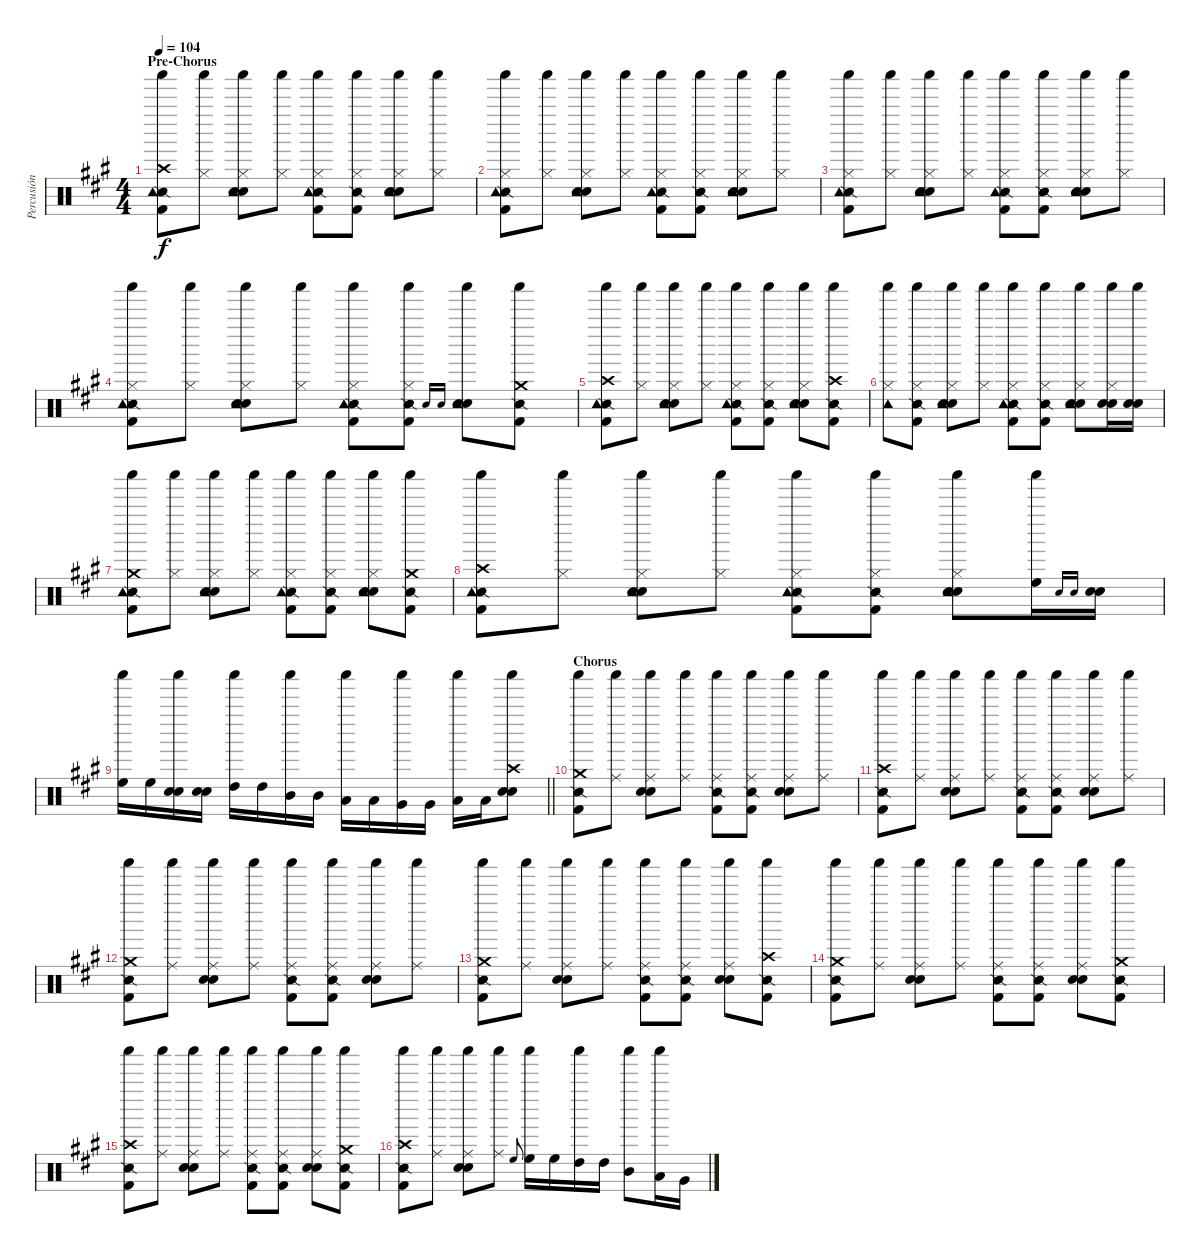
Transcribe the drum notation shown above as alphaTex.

\track ("Percusión" "Percusión") {instrument percussion}
\staff {score}
\articulation defaults
\ts (4 4)
\section ("" "Pre-Chorus")
\tempo 104
\clef neutral
\ks a
("Crash high (hit)" "Kick (hit) 2" "Snare (side stick) 2" "Tambourine (hit)" "Shaker (hit)").8{dy f} ("Hi-Hat (closed)" "Shaker (hit)").8 ("Hi-Hat (closed)" "Snare (hit) 2" "Electric Snare (hit)" "Tambourine (hit)" "Shaker (hit)").8 ("Hi-Hat (closed)" "Shaker (hit)").8 ("Hi-Hat (closed)" "Kick (hit) 2" "Snare (side stick) 2" "Tambourine (hit)" "Shaker (hit)").8 ("Hi-Hat (closed)" "Kick (hit) 2" "Snare (side stick) 2" "Shaker (hit)").8 ("Hi-Hat (closed)" "Snare (hit) 2" "Electric Snare (hit)" "Tambourine (hit)" "Shaker (hit)").8 ("Hi-Hat (closed)" "Shaker (hit)").8 |
("Hi-Hat (closed)" "Kick (hit) 2" "Snare (side stick) 2" "Tambourine (hit)" "Shaker (hit)").8 ("Hi-Hat (closed)" "Shaker (hit)").8 ("Hi-Hat (closed)" "Snare (hit) 2" "Electric Snare (hit)" "Tambourine (hit)" "Shaker (hit)").8 ("Hi-Hat (closed)" "Shaker (hit)").8 ("Hi-Hat (closed)" "Kick (hit) 2" "Snare (side stick) 2" "Tambourine (hit)" "Shaker (hit)").8 ("Hi-Hat (closed)" "Kick (hit) 2" "Snare (side stick) 2" "Shaker (hit)").8 ("Hi-Hat (closed)" "Snare (hit) 2" "Electric Snare (hit)" "Tambourine (hit)" "Shaker (hit)").8 ("Hi-Hat (closed)" "Shaker (hit)").8 |
("Hi-Hat (closed)" "Kick (hit) 2" "Snare (side stick) 2" "Tambourine (hit)" "Shaker (hit)").8 ("Hi-Hat (closed)" "Shaker (hit)").8 ("Hi-Hat (closed)" "Snare (hit) 2" "Electric Snare (hit)" "Tambourine (hit)" "Shaker (hit)").8 ("Hi-Hat (closed)" "Shaker (hit)").8 ("Hi-Hat (closed)" "Kick (hit) 2" "Snare (side stick) 2" "Tambourine (hit)" "Shaker (hit)").8 ("Hi-Hat (closed)" "Kick (hit) 2" "Snare (side stick) 2" "Shaker (hit)").8 ("Hi-Hat (closed)" "Snare (hit) 2" "Electric Snare (hit)" "Tambourine (hit)" "Shaker (hit)").8 ("Hi-Hat (closed)" "Shaker (hit)").8 |
("Hi-Hat (closed)" "Kick (hit) 2" "Snare (side stick) 2" "Tambourine (hit)" "Shaker (hit)").8 ("Hi-Hat (closed)" "Shaker (hit)").8 ("Hi-Hat (closed)" "Snare (hit) 2" "Electric Snare (hit)" "Tambourine (hit)" "Shaker (hit)").8 ("Hi-Hat (closed)" "Shaker (hit)").8 ("Hi-Hat (closed)" "Kick (hit) 2" "Snare (side stick) 2" "Tambourine (hit)" "Shaker (hit)").8 ("Hi-Hat (closed)" "Kick (hit) 2" "Snare (side stick) 2" "Shaker (hit)").8 "Snare (hit) 2".16{gr onbeat} "Electric Snare (hit)".16{gr onbeat} ("Snare (hit) 2" "Electric Snare (hit)" "Tambourine (hit)" "Shaker (hit)").8 ("Crash medium (hit)" "Kick (hit) 2" "Snare (side stick) 2" "Shaker (hit)").8 |
("Crash high (hit)" "Kick (hit) 2" "Snare (side stick) 2" "Tambourine (hit)" "Shaker (hit)").8 ("Hi-Hat (closed)" "Shaker (hit)").8 ("Hi-Hat (closed)" "Snare (hit) 2" "Electric Snare (hit)" "Tambourine (hit)" "Shaker (hit)").8 ("Hi-Hat (closed)" "Shaker (hit)").8 ("Hi-Hat (closed)" "Kick (hit) 2" "Snare (side stick) 2" "Tambourine (hit)" "Shaker (hit)").8 ("Hi-Hat (closed)" "Kick (hit) 2" "Snare (side stick) 2" "Shaker (hit)").8 ("Hi-Hat (closed)" "Snare (hit) 2" "Electric Snare (hit)" "Tambourine (hit)" "Shaker (hit)").8 ("Crash high (hit)" "Kick (hit) 2" "Snare (side stick) 2" "Shaker (hit)").8 |
("Hi-Hat (closed)" "Tambourine (hit)" "Shaker (hit)").8 ("Hi-Hat (closed)" "Kick (hit) 2" "Snare (side stick) 2" "Shaker (hit)").8 ("Hi-Hat (closed)" "Snare (hit) 2" "Electric Snare (hit)" "Tambourine (hit)" "Shaker (hit)").8 ("Hi-Hat (closed)" "Shaker (hit)").8 ("Hi-Hat (closed)" "Kick (hit) 2" "Snare (side stick) 2" "Tambourine (hit)" "Shaker (hit)").8 ("Hi-Hat (closed)" "Kick (hit) 2" "Snare (side stick) 2" "Shaker (hit)").8 ("Hi-Hat (closed)" "Snare (hit) 2" "Electric Snare (hit)" "Tambourine (hit)" "Shaker (hit)").8 ("Hi-Hat (closed)" "Snare (hit) 2" "Electric Snare (hit)" "Shaker (hit)").16 ("Snare (hit) 2" "Electric Snare (hit)" "Shaker (hit)").16 |
("Crash medium (hit)" "Kick (hit) 2" "Snare (side stick) 2" "Tambourine (hit)" "Shaker (hit)").8 ("Hi-Hat (closed)" "Shaker (hit)").8 ("Hi-Hat (closed)" "Snare (hit) 2" "Electric Snare (hit)" "Tambourine (hit)" "Shaker (hit)").8 ("Hi-Hat (closed)" "Shaker (hit)").8 ("Hi-Hat (closed)" "Kick (hit) 2" "Snare (side stick) 2" "Tambourine (hit)" "Shaker (hit)").8 ("Hi-Hat (closed)" "Kick (hit) 2" "Snare (side stick) 2" "Shaker (hit)").8 ("Hi-Hat (closed)" "Snare (hit) 2" "Electric Snare (hit)" "Tambourine (hit)" "Shaker (hit)").8 ("Crash medium (hit)" "Kick (hit) 2" "Snare (side stick) 2" "Shaker (hit)").8 |
("Crash high (hit)" "Kick (hit) 2" "Snare (side stick) 2" "Tambourine (hit)" "Shaker (hit)").8 ("Hi-Hat (closed)" "Shaker (hit)").8 ("Hi-Hat (closed)" "Snare (hit) 2" "Electric Snare (hit)" "Tambourine (hit)" "Shaker (hit)").8 ("Hi-Hat (closed)" "Shaker (hit)").8 ("Hi-Hat (closed)" "Kick (hit) 2" "Snare (side stick) 2" "Tambourine (hit)" "Shaker (hit)").8 ("Hi-Hat (closed)" "Kick (hit) 2" "Snare (side stick) 2" "Shaker (hit)").8 ("Hi-Hat (closed)" "Snare (hit) 2" "Electric Snare (hit)" "Tambourine (hit)" "Shaker (hit)").8 ("High Floor Tom (hit)" "Shaker (hit)").16 "Snare (hit) 2".16{gr onbeat} "Electric Snare (hit)".16{gr onbeat} ("Snare (hit) 2" "Electric Snare (hit)").16 |
\barLineRight lightlight
("High Floor Tom (hit)" "Shaker (hit)").16 "High Floor Tom (hit)".16 ("Snare (hit) 2" "Electric Snare (hit)" "Shaker (hit)").16 ("Snare (hit) 2" "Electric Snare (hit)").16 ("High Tom (hit)" "Shaker (hit)").16 "High Tom (hit)".16 ("Mid Tom (hit)" "Shaker (hit)").16 "Mid Tom (hit)".16 ("Low Tom (hit)" "Shaker (hit)").16 "Low Tom (hit)".16 ("Very Low Tom (hit)" "Shaker (hit)").16 "Very Low Tom (hit)".16 ("Low Floor Tom (hit)" "Shaker (hit)").16 "Low Floor Tom (hit)".16 ("Crash high (hit)" "Snare (hit) 2" "Electric Snare (hit)" "Shaker (hit)").8 |
\section ("" "Chorus")
("Crash medium (hit)" "Kick (hit) 2" "Snare (side stick) 2" "Shaker (hit)").8 ("Ride (middle)" "Shaker (hit)").8 ("Ride (middle)" "Snare (hit) 2" "Electric Snare (hit)" "Shaker (hit)").8 ("Ride (middle)" "Shaker (hit)").8 ("Ride (middle)" "Kick (hit) 2" "Snare (side stick) 2" "Shaker (hit)").8 ("Ride (middle)" "Kick (hit) 2" "Snare (side stick) 2" "Shaker (hit)").8 ("Ride (middle)" "Snare (hit) 2" "Electric Snare (hit)" "Shaker (hit)").8 ("Ride (middle)" "Shaker (hit)").8 |
("Crash high (hit)" "Kick (hit) 2" "Snare (side stick) 2" "Shaker (hit)").8 ("Ride (middle)" "Shaker (hit)").8 ("Ride (middle)" "Snare (hit) 2" "Electric Snare (hit)" "Shaker (hit)").8 ("Ride (middle)" "Shaker (hit)").8 ("Ride (middle)" "Kick (hit) 2" "Snare (side stick) 2" "Shaker (hit)").8 ("Ride (middle)" "Kick (hit) 2" "Snare (side stick) 2" "Shaker (hit)").8 ("Ride (middle)" "Snare (hit) 2" "Electric Snare (hit)" "Shaker (hit)").8 ("Ride (middle)" "Shaker (hit)").8 |
("Crash medium (hit)" "Kick (hit) 2" "Snare (side stick) 2" "Shaker (hit)").8 ("Ride (middle)" "Shaker (hit)").8 ("Ride (middle)" "Snare (hit) 2" "Electric Snare (hit)" "Shaker (hit)").8 ("Ride (middle)" "Shaker (hit)").8 ("Ride (middle)" "Kick (hit) 2" "Snare (side stick) 2" "Shaker (hit)").8 ("Ride (middle)" "Kick (hit) 2" "Snare (side stick) 2" "Shaker (hit)").8 ("Ride (middle)" "Snare (hit) 2" "Electric Snare (hit)" "Shaker (hit)").8 ("Ride (middle)" "Shaker (hit)").8 |
("Crash medium (hit)" "Kick (hit) 2" "Snare (side stick) 2" "Shaker (hit)").8 ("Ride (middle)" "Shaker (hit)").8 ("Ride (middle)" "Snare (hit) 2" "Electric Snare (hit)" "Shaker (hit)").8 ("Ride (middle)" "Shaker (hit)").8 ("Ride (middle)" "Kick (hit) 2" "Snare (side stick) 2" "Shaker (hit)").8 ("Ride (middle)" "Kick (hit) 2" "Snare (side stick) 2" "Shaker (hit)").8 ("Ride (middle)" "Snare (hit) 2" "Electric Snare (hit)" "Shaker (hit)").8 ("Crash high (hit)" "Kick (hit) 2" "Snare (side stick) 2" "Shaker (hit)").8 |
("Crash medium (hit)" "Kick (hit) 2" "Snare (side stick) 2" "Shaker (hit)").8 ("Ride (middle)" "Shaker (hit)").8 ("Ride (middle)" "Snare (hit) 2" "Electric Snare (hit)" "Shaker (hit)").8 ("Ride (middle)" "Shaker (hit)").8 ("Ride (middle)" "Kick (hit) 2" "Snare (side stick) 2" "Shaker (hit)").8 ("Ride (middle)" "Kick (hit) 2" "Snare (side stick) 2" "Shaker (hit)").8 ("Ride (middle)" "Snare (hit) 2" "Electric Snare (hit)" "Shaker (hit)").8 ("Crash medium (hit)" "Kick (hit) 2" "Snare (side stick) 2" "Shaker (hit)").8 |
("Crash high (hit)" "Kick (hit) 2" "Snare (side stick) 2" "Shaker (hit)").8 ("Ride (middle)" "Shaker (hit)").8 ("Ride (middle)" "Snare (hit) 2" "Electric Snare (hit)" "Shaker (hit)").8 ("Ride (middle)" "Shaker (hit)").8 ("Ride (middle)" "Kick (hit) 2" "Snare (side stick) 2" "Shaker (hit)").8 ("Ride (middle)" "Kick (hit) 2" "Snare (side stick) 2" "Shaker (hit)").8 ("Ride (middle)" "Snare (hit) 2" "Electric Snare (hit)" "Shaker (hit)").8 ("Crash medium (hit)" "Kick (hit) 2" "Snare (side stick) 2" "Shaker (hit)").8 |
("Crash high (hit)" "Kick (hit) 2" "Snare (side stick) 2" "Shaker (hit)").8 ("Ride (middle)" "Shaker (hit)").8 ("Ride (middle)" "Snare (hit) 2" "Electric Snare (hit)" "Shaker (hit)").8 ("Ride (middle)" "Shaker (hit)").8 "High Floor Tom (hit)".8{gr onbeat} ("High Floor Tom (hit)" "Shaker (hit)").16 "High Floor Tom (hit)".16 ("High Tom (hit)" "Shaker (hit)").16 "High Tom (hit)".16 ("Mid Tom (hit)" "Shaker (hit)").8 ("Low Tom (hit)" "Shaker (hit)").16 "Very Low Tom (hit)".16
